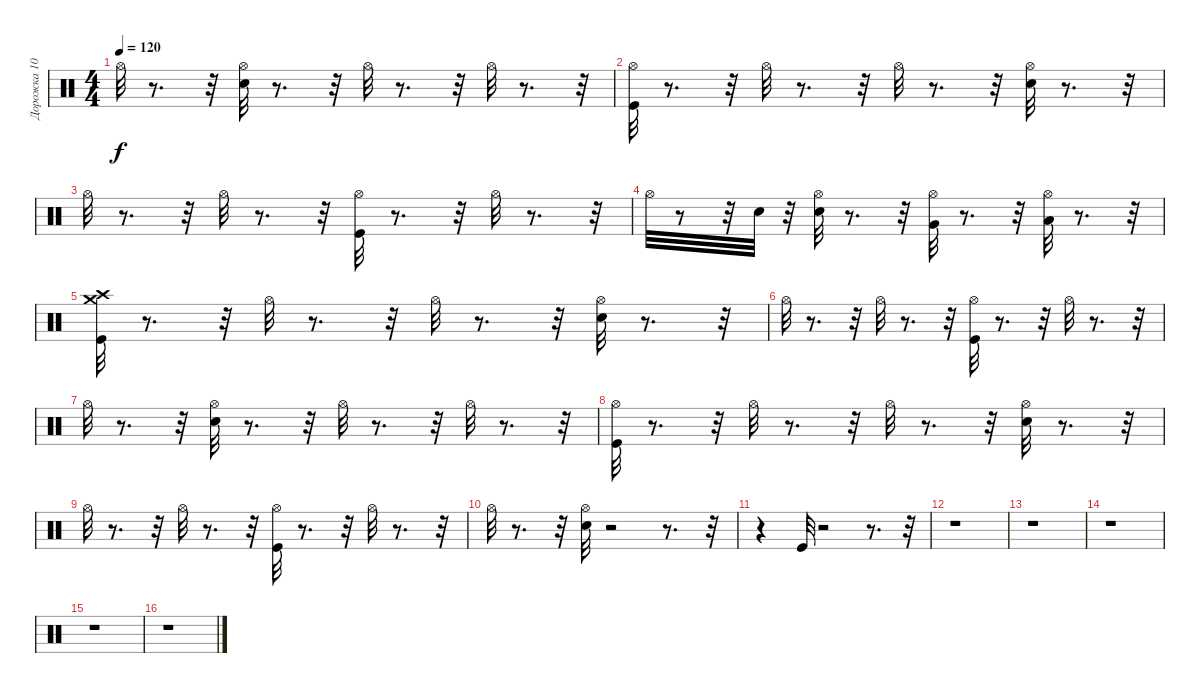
\track ("Дорожка 10" "Дорожка 10") {instrument percussion}
\staff {score}
\articulation defaults
\ts (4 4)
\tempo 120
\clef neutral
\ks c "Hi-Hat (open)".32{dy f}
r.8{d} r.32 ("Hi-Hat (open)" "Snare (hit) 2").32 r.8{d} r.32 "Hi-Hat (open)".32 r.8{d} r.32 "Hi-Hat (open)".32 r.8{d} r.32 |
("Hi-Hat (open)" "Kick (hit)").32 r.8{d} r.32 "Hi-Hat (open)".32 r.8{d} r.32 "Hi-Hat (open)".32 r.8{d} r.32 ("Hi-Hat (open)" "Snare (hit) 2").32 r.8{d} r.32 |
"Hi-Hat (open)".32 r.8{d} r.32 "Hi-Hat (open)".32 r.8{d} r.32 ("Hi-Hat (open)" "Kick (hit)").32 r.8{d} r.32 "Hi-Hat (open)".32 r.8{d} r.32 |
"Hi-Hat (open)".32 r.8 r.32 "Snare (hit) 2".32 r.32 ("Hi-Hat (open)" "Snare (hit) 2").32 r.8{d} r.32 ("Very Low Tom (hit)" "Hi-Hat (open)").32 r.8{d} r.32 ("Low Floor Tom (hit)" "Hi-Hat (open)").32 r.8{d} r.32 |
("Crash high (hit)" "Crash medium (hit)" "Kick (hit)").32 r.8{d} r.32 "Hi-Hat (open)".32 r.8{d} r.32 "Hi-Hat (open)".32 r.8{d} r.32 ("Snare (hit) 2" "Hi-Hat (open)").32 r.8{d} r.32 |
"Hi-Hat (open)".32 r.8{d} r.32 "Hi-Hat (open)".32 r.8{d} r.32 ("Hi-Hat (open)" "Kick (hit)").32 r.8{d} r.32 "Hi-Hat (open)".32 r.8{d} r.32 |
"Hi-Hat (open)".32 r.8{d} r.32 ("Hi-Hat (open)" "Snare (hit) 2").32 r.8{d} r.32 "Hi-Hat (open)".32 r.8{d} r.32 "Hi-Hat (open)".32 r.8{d} r.32 |
("Kick (hit)" "Hi-Hat (open)").32 r.8{d} r.32 "Hi-Hat (open)".32 r.8{d} r.32 "Hi-Hat (open)".32 r.8{d} r.32 ("Hi-Hat (open)" "Snare (hit) 2").32 r.8{d} r.32 |
"Hi-Hat (open)".32 r.8{d} r.32 "Hi-Hat (open)".32 r.8{d} r.32 ("Hi-Hat (open)" "Kick (hit)").32 r.8{d} r.32 "Hi-Hat (open)".32 r.8{d} r.32 |
"Hi-Hat (open)".32 r.8{d} r.32 ("Hi-Hat (open)" "Snare (hit) 2").32 r.2 r.8{d} r.32 |
r.4 "Kick (hit)".32 r.2 r.8{d} r.32 |
r.1 |
r.1 |
r.1 |
r.1 |
r.1
